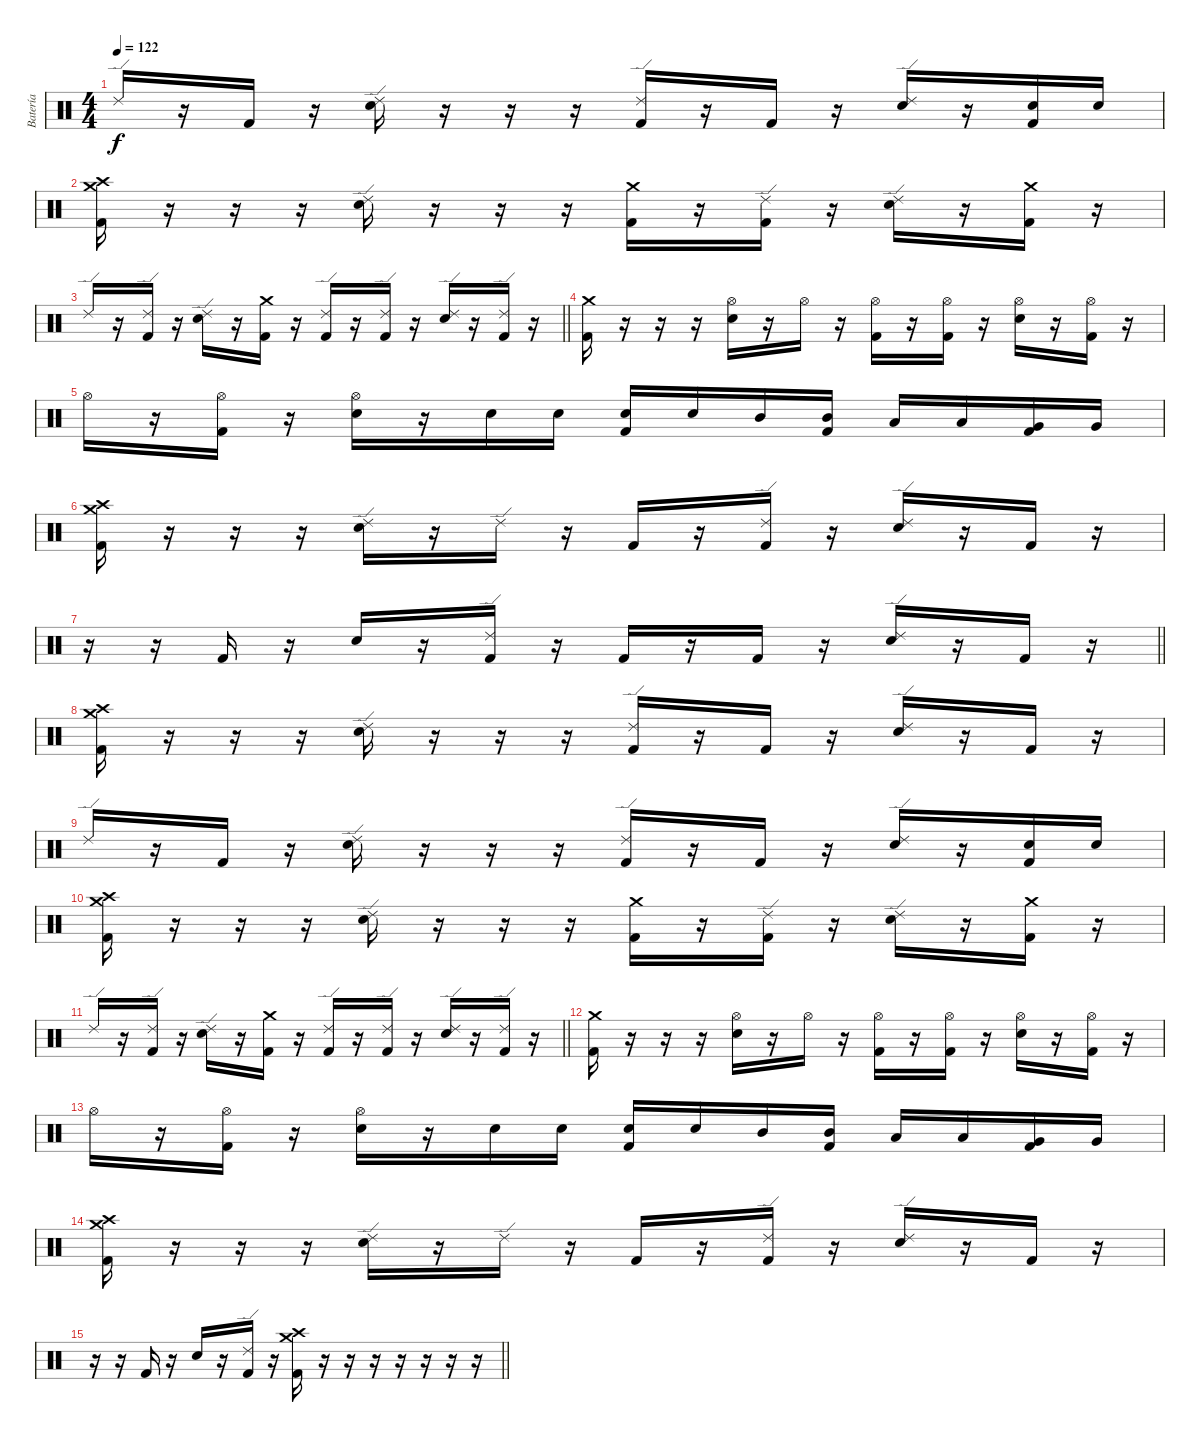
\track ("Batería" "Batería") {instrument percussion}
\staff {score}
\articulation defaults
\ts (4 4)
\tempo 122
\clef neutral
\ks c "Ride (edge) 2".16{dy f}
r.16 "Kick (hit) 2".16 r.16 ("Electric Snare (hit)" "Ride (edge) 2").16 r.16 r.16 r.16 ("Kick (hit) 2" "Ride (edge) 2").16 r.16 "Kick (hit) 2".16 r.16 ("Electric Snare (hit)" "Ride (edge) 2").16 r.16 ("Electric Snare (hit)" "Kick (hit) 2").16 "Electric Snare (hit)".16 |
("Crash high (hit)" "Kick (hit) 2" "Crash medium (hit)").16 r.16 r.16 r.16 ("Electric Snare (hit)" "Ride (edge) 2").16 r.16 r.16 r.16 ("Kick (hit) 2" "Crash medium (hit)").16 r.16 ("Kick (hit) 2" "Ride (edge) 2").16 r.16 ("Electric Snare (hit)" "Ride (edge) 2").16 r.16 ("Kick (hit) 2" "Crash medium (hit)").16 r.16 |
\barLineRight lightlight "Ride (edge) 2".16
r.16 ("Kick (hit) 2" "Ride (edge) 2").16 r.16 ("Electric Snare (hit)" "Ride (edge) 2").16 r.16 ("Kick (hit) 2" "Crash medium (hit)").16 r.16 ("Kick (hit) 2" "Ride (edge) 2").16 r.16 ("Kick (hit) 2" "Ride (edge) 2").16 r.16 ("Electric Snare (hit)" "Ride (edge) 2").16 r.16 ("Kick (hit) 2" "Ride (edge) 2").16 r.16 |
("Kick (hit) 2" "Crash medium (hit)").16 r.16 r.16 r.16 ("Electric Snare (hit)" "Hi-Hat (open)").16 r.16 "Hi-Hat (open)".16 r.16 ("Kick (hit) 2" "Hi-Hat (open)").16 r.16 ("Kick (hit) 2" "Hi-Hat (open)").16 r.16 ("Electric Snare (hit)" "Hi-Hat (open)").16 r.16 ("Kick (hit) 2" "Hi-Hat (open)").16 r.16 |
"Hi-Hat (open)".16 r.16 ("Kick (hit) 2" "Hi-Hat (open)").16 r.16 ("Electric Snare (hit)" "Hi-Hat (open)").16 r.16 "Electric Snare (hit)".16 "Electric Snare (hit)".16 ("Electric Snare (hit)" "Kick (hit) 2").16 "Electric Snare (hit)".16 "Mid Tom (hit)".16 ("Mid Tom (hit)" "Kick (hit) 2").16 "Low Tom (hit)".16 "Low Tom (hit)".16 ("Very Low Tom (hit)" "Kick (hit) 2").16 "Very Low Tom (hit)".16 |
("Crash high (hit)" "Kick (hit) 2" "Crash medium (hit)").16 r.16 r.16 r.16 ("Electric Snare (hit)" "Ride (edge) 2").16 r.16 "Ride (edge) 2".16 r.16 "Kick (hit) 2".16 r.16 ("Kick (hit) 2" "Ride (edge) 2").16 r.16 ("Electric Snare (hit)" "Ride (edge) 2").16 r.16 "Kick (hit) 2".16 r.16 |
\barLineRight lightlight
r.16 r.16 "Kick (hit) 2".16 r.16 "Electric Snare (hit)".16 r.16 ("Kick (hit) 2" "Ride (edge) 2").16 r.16 "Kick (hit) 2".16 r.16 "Kick (hit) 2".16 r.16 ("Electric Snare (hit)" "Ride (edge) 2").16 r.16 "Kick (hit) 2".16 r.16 |
("Crash medium (hit)" "Kick (hit) 2" "Crash high (hit)").16 r.16 r.16 r.16 ("Electric Snare (hit)" "Ride (edge) 2").16 r.16 r.16 r.16 ("Kick (hit) 2" "Ride (edge) 2").16 r.16 "Kick (hit) 2".16 r.16 ("Electric Snare (hit)" "Ride (edge) 2").16 r.16 "Kick (hit) 2".16 r.16 |
"Ride (edge) 2".16 r.16 "Kick (hit) 2".16 r.16 ("Electric Snare (hit)" "Ride (edge) 2").16 r.16 r.16 r.16 ("Kick (hit) 2" "Ride (edge) 2").16 r.16 "Kick (hit) 2".16 r.16 ("Electric Snare (hit)" "Ride (edge) 2").16 r.16 ("Electric Snare (hit)" "Kick (hit) 2").16 "Electric Snare (hit)".16 |
("Crash high (hit)" "Kick (hit) 2" "Crash medium (hit)").16 r.16 r.16 r.16 ("Electric Snare (hit)" "Ride (edge) 2").16 r.16 r.16 r.16 ("Kick (hit) 2" "Crash medium (hit)").16 r.16 ("Kick (hit) 2" "Ride (edge) 2").16 r.16 ("Electric Snare (hit)" "Ride (edge) 2").16 r.16 ("Kick (hit) 2" "Crash medium (hit)").16 r.16 |
\barLineRight lightlight "Ride (edge) 2".16
r.16 ("Kick (hit) 2" "Ride (edge) 2").16 r.16 ("Electric Snare (hit)" "Ride (edge) 2").16 r.16 ("Kick (hit) 2" "Crash medium (hit)").16 r.16 ("Kick (hit) 2" "Ride (edge) 2").16 r.16 ("Kick (hit) 2" "Ride (edge) 2").16 r.16 ("Electric Snare (hit)" "Ride (edge) 2").16 r.16 ("Kick (hit) 2" "Ride (edge) 2").16 r.16 |
("Kick (hit) 2" "Crash medium (hit)").16 r.16 r.16 r.16 ("Electric Snare (hit)" "Hi-Hat (open)").16 r.16 "Hi-Hat (open)".16 r.16 ("Kick (hit) 2" "Hi-Hat (open)").16 r.16 ("Kick (hit) 2" "Hi-Hat (open)").16 r.16 ("Electric Snare (hit)" "Hi-Hat (open)").16 r.16 ("Kick (hit) 2" "Hi-Hat (open)").16 r.16 |
"Hi-Hat (open)".16 r.16 ("Kick (hit) 2" "Hi-Hat (open)").16 r.16 ("Electric Snare (hit)" "Hi-Hat (open)").16 r.16 "Electric Snare (hit)".16 "Electric Snare (hit)".16 ("Electric Snare (hit)" "Kick (hit) 2").16 "Electric Snare (hit)".16 "Mid Tom (hit)".16 ("Mid Tom (hit)" "Kick (hit) 2").16 "Low Tom (hit)".16 "Low Tom (hit)".16 ("Very Low Tom (hit)" "Kick (hit) 2").16 "Very Low Tom (hit)".16 |
("Crash high (hit)" "Kick (hit) 2" "Crash medium (hit)").16 r.16 r.16 r.16 ("Electric Snare (hit)" "Ride (edge) 2").16 r.16 "Ride (edge) 2".16 r.16 "Kick (hit) 2".16 r.16 ("Kick (hit) 2" "Ride (edge) 2").16 r.16 ("Electric Snare (hit)" "Ride (edge) 2").16 r.16 "Kick (hit) 2".16 r.16 |
\barLineRight lightlight
r.16 r.16 "Kick (hit) 2".16 r.16 "Electric Snare (hit)".16 r.16 ("Kick (hit) 2" "Ride (edge) 2").16 r.16 ("Crash high (hit)" "Kick (hit) 2" "Crash medium (hit)").16 r.16 r.16 r.16 r.16 r.16 r.16 r.16
